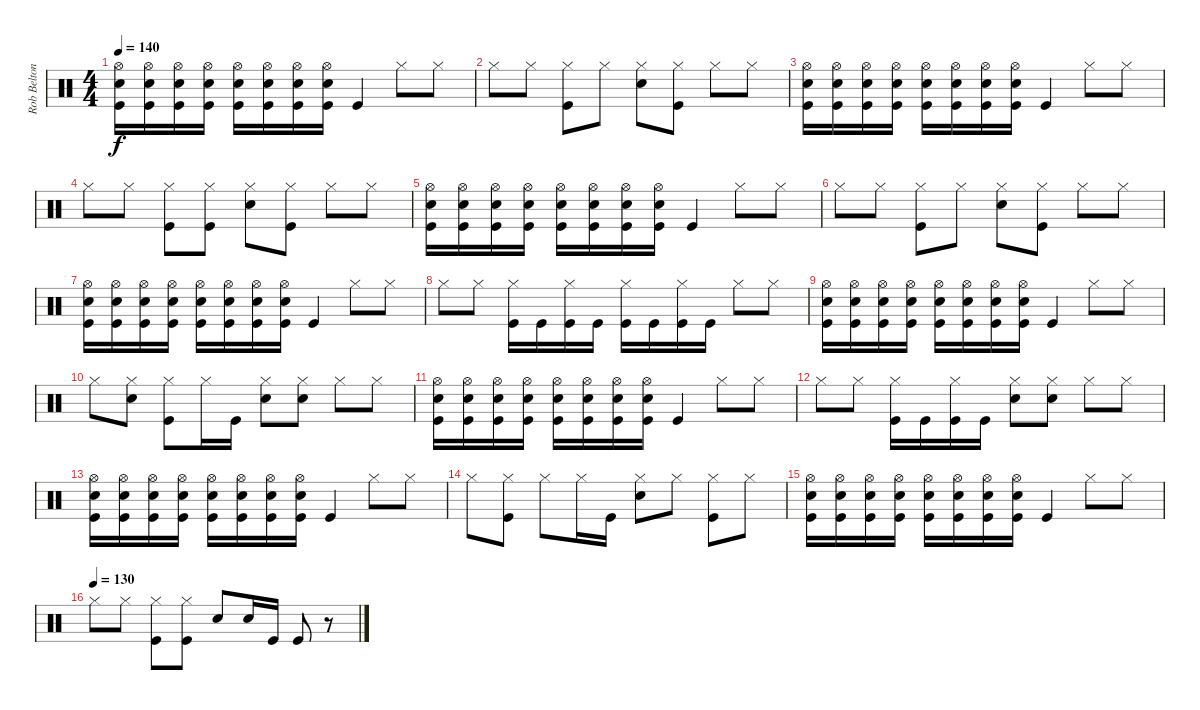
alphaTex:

\track ("Rob Belton" "Rob Belton") {instrument percussion}
\staff {score}
\articulation defaults
\ts (4 4)
\tempo 140
\clef neutral
\ks c
("Kick (hit)" "Snare (hit) 2" "Hi-Hat (open)").16{dy f} ("Kick (hit)" "Snare (hit) 2" "Hi-Hat (open)").16 ("Kick (hit)" "Snare (hit) 2" "Hi-Hat (open)").16 ("Kick (hit)" "Snare (hit) 2" "Hi-Hat (open)").16 ("Kick (hit)" "Snare (hit) 2" "Hi-Hat (open)").16 ("Kick (hit)" "Snare (hit) 2" "Hi-Hat (open)").16 ("Kick (hit)" "Snare (hit) 2" "Hi-Hat (open)").16 ("Kick (hit)" "Snare (hit) 2" "Hi-Hat (open)").16 "Kick (hit)".4 "Hi-Hat (closed)".8 "Hi-Hat (closed)".8 |
"Hi-Hat (closed)".8 "Hi-Hat (closed)".8 ("Hi-Hat (closed)" "Kick (hit)").8 "Hi-Hat (closed)".8 ("Hi-Hat (closed)" "Snare (hit) 2").8 ("Hi-Hat (closed)" "Kick (hit)").8 "Hi-Hat (closed)".8 "Hi-Hat (closed)".8 |
("Kick (hit)" "Snare (hit) 2" "Hi-Hat (open)").16 ("Kick (hit)" "Snare (hit) 2" "Hi-Hat (open)").16 ("Kick (hit)" "Snare (hit) 2" "Hi-Hat (open)").16 ("Kick (hit)" "Snare (hit) 2" "Hi-Hat (open)").16 ("Kick (hit)" "Snare (hit) 2" "Hi-Hat (open)").16 ("Kick (hit)" "Snare (hit) 2" "Hi-Hat (open)").16 ("Kick (hit)" "Snare (hit) 2" "Hi-Hat (open)").16 ("Kick (hit)" "Snare (hit) 2" "Hi-Hat (open)").16 "Kick (hit)".4 "Hi-Hat (closed)".8 "Hi-Hat (closed)".8 |
"Hi-Hat (closed)".8 "Hi-Hat (closed)".8 ("Hi-Hat (closed)" "Kick (hit)").8 ("Hi-Hat (closed)" "Kick (hit)").8 ("Hi-Hat (closed)" "Snare (hit) 2").8 ("Hi-Hat (closed)" "Kick (hit)").8 "Hi-Hat (closed)".8 "Hi-Hat (closed)".8 |
("Kick (hit)" "Snare (hit) 2" "Hi-Hat (open)").16 ("Kick (hit)" "Snare (hit) 2" "Hi-Hat (open)").16 ("Kick (hit)" "Snare (hit) 2" "Hi-Hat (open)").16 ("Kick (hit)" "Snare (hit) 2" "Hi-Hat (open)").16 ("Kick (hit)" "Snare (hit) 2" "Hi-Hat (open)").16 ("Kick (hit)" "Snare (hit) 2" "Hi-Hat (open)").16 ("Kick (hit)" "Snare (hit) 2" "Hi-Hat (open)").16 ("Kick (hit)" "Snare (hit) 2" "Hi-Hat (open)").16 "Kick (hit)".4 "Hi-Hat (closed)".8 "Hi-Hat (closed)".8 |
"Hi-Hat (closed)".8 "Hi-Hat (closed)".8 ("Hi-Hat (closed)" "Kick (hit)").8 "Hi-Hat (closed)".8 ("Hi-Hat (closed)" "Snare (hit) 2").8 ("Hi-Hat (closed)" "Kick (hit)").8 "Hi-Hat (closed)".8 "Hi-Hat (closed)".8 |
("Kick (hit)" "Snare (hit) 2" "Hi-Hat (open)").16 ("Kick (hit)" "Snare (hit) 2" "Hi-Hat (open)").16 ("Kick (hit)" "Snare (hit) 2" "Hi-Hat (open)").16 ("Kick (hit)" "Snare (hit) 2" "Hi-Hat (open)").16 ("Kick (hit)" "Snare (hit) 2" "Hi-Hat (open)").16 ("Kick (hit)" "Snare (hit) 2" "Hi-Hat (open)").16 ("Kick (hit)" "Snare (hit) 2" "Hi-Hat (open)").16 ("Kick (hit)" "Snare (hit) 2" "Hi-Hat (open)").16 "Kick (hit)".4 "Hi-Hat (closed)".8 "Hi-Hat (closed)".8 |
"Hi-Hat (closed)".8 "Hi-Hat (closed)".8 ("Hi-Hat (closed)" "Kick (hit)").16 "Kick (hit)".16 ("Hi-Hat (closed)" "Kick (hit)").16 "Kick (hit)".16 ("Hi-Hat (closed)" "Kick (hit)").16 "Kick (hit)".16 ("Hi-Hat (closed)" "Kick (hit)").16 "Kick (hit)".16 "Hi-Hat (closed)".8 "Hi-Hat (closed)".8 |
("Kick (hit)" "Snare (hit) 2" "Hi-Hat (open)").16 ("Kick (hit)" "Snare (hit) 2" "Hi-Hat (open)").16 ("Kick (hit)" "Snare (hit) 2" "Hi-Hat (open)").16 ("Kick (hit)" "Snare (hit) 2" "Hi-Hat (open)").16 ("Kick (hit)" "Snare (hit) 2" "Hi-Hat (open)").16 ("Kick (hit)" "Snare (hit) 2" "Hi-Hat (open)").16 ("Kick (hit)" "Snare (hit) 2" "Hi-Hat (open)").16 ("Kick (hit)" "Snare (hit) 2" "Hi-Hat (open)").16 "Kick (hit)".4 "Hi-Hat (closed)".8 "Hi-Hat (closed)".8 |
"Hi-Hat (closed)".8 ("Hi-Hat (closed)" "Snare (hit) 2").8 ("Hi-Hat (closed)" "Kick (hit)").8 "Hi-Hat (closed)".16 "Kick (hit)".16 ("Hi-Hat (closed)" "Snare (hit) 2").8 ("Hi-Hat (closed)" "Snare (hit) 2").8 "Hi-Hat (closed)".8 "Hi-Hat (closed)".8 |
("Kick (hit)" "Snare (hit) 2" "Hi-Hat (open)").16 ("Kick (hit)" "Snare (hit) 2" "Hi-Hat (open)").16 ("Kick (hit)" "Snare (hit) 2" "Hi-Hat (open)").16 ("Kick (hit)" "Snare (hit) 2" "Hi-Hat (open)").16 ("Kick (hit)" "Snare (hit) 2" "Hi-Hat (open)").16 ("Kick (hit)" "Snare (hit) 2" "Hi-Hat (open)").16 ("Kick (hit)" "Snare (hit) 2" "Hi-Hat (open)").16 ("Kick (hit)" "Snare (hit) 2" "Hi-Hat (open)").16 "Kick (hit)".4 "Hi-Hat (closed)".8 "Hi-Hat (closed)".8 |
"Hi-Hat (closed)".8 "Hi-Hat (closed)".8 ("Hi-Hat (closed)" "Kick (hit)").16 "Kick (hit)".16 ("Hi-Hat (closed)" "Kick (hit)").16 "Kick (hit)".16 ("Hi-Hat (closed)" "Snare (hit) 2").8 ("Hi-Hat (closed)" "Snare (hit) 2").8 "Hi-Hat (closed)".8 "Hi-Hat (closed)".8 |
("Kick (hit)" "Snare (hit) 2" "Hi-Hat (open)").16 ("Kick (hit)" "Snare (hit) 2" "Hi-Hat (open)").16 ("Kick (hit)" "Snare (hit) 2" "Hi-Hat (open)").16 ("Kick (hit)" "Snare (hit) 2" "Hi-Hat (open)").16 ("Kick (hit)" "Snare (hit) 2" "Hi-Hat (open)").16 ("Kick (hit)" "Snare (hit) 2" "Hi-Hat (open)").16 ("Kick (hit)" "Snare (hit) 2" "Hi-Hat (open)").16 ("Kick (hit)" "Snare (hit) 2" "Hi-Hat (open)").16 "Kick (hit)".4 "Hi-Hat (closed)".8 "Hi-Hat (closed)".8 |
"Hi-Hat (closed)".8 ("Hi-Hat (closed)" "Kick (hit)").8 "Hi-Hat (closed)".8 "Hi-Hat (closed)".16 "Kick (hit)".16 ("Hi-Hat (closed)" "Snare (hit) 2").8 "Hi-Hat (closed)".8 ("Hi-Hat (closed)" "Kick (hit)").8 "Hi-Hat (closed)".8 |
("Kick (hit)" "Snare (hit) 2" "Hi-Hat (open)").16 ("Kick (hit)" "Snare (hit) 2" "Hi-Hat (open)").16 ("Kick (hit)" "Snare (hit) 2" "Hi-Hat (open)").16 ("Kick (hit)" "Snare (hit) 2" "Hi-Hat (open)").16 ("Kick (hit)" "Snare (hit) 2" "Hi-Hat (open)").16 ("Kick (hit)" "Snare (hit) 2" "Hi-Hat (open)").16 ("Kick (hit)" "Snare (hit) 2" "Hi-Hat (open)").16 ("Kick (hit)" "Snare (hit) 2" "Hi-Hat (open)").16 "Kick (hit)".4 "Hi-Hat (closed)".8 "Hi-Hat (closed)".8 |
\tempo (130)
"Hi-Hat (closed)".8 "Hi-Hat (closed)".8 ("Hi-Hat (closed)" "Kick (hit)").8 ("Kick (hit)" "Hi-Hat (closed)").8 "Snare (hit) 2".8 "Snare (hit) 2".16 "Kick (hit)".16 "Kick (hit)".8 r.8
